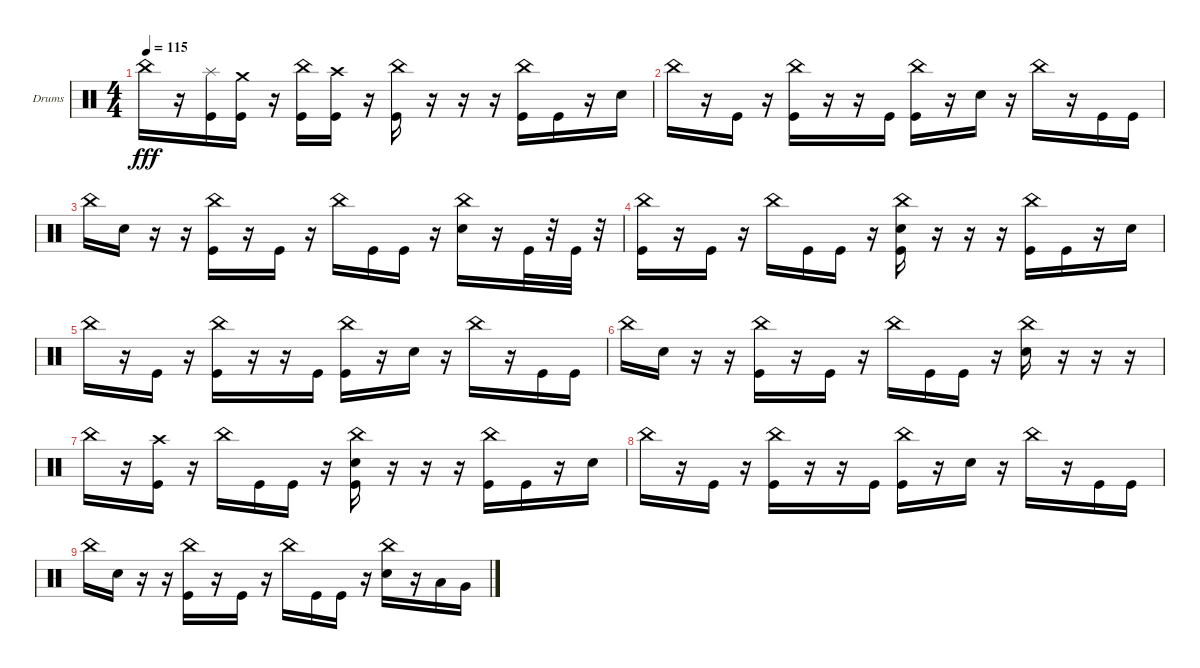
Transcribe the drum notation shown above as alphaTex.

\bracketExtendMode groupsimilarinstruments
\firstSystemTrackNameOrientation horizontal
\otherSystemsTrackNameOrientation horizontal
\track ("Drumkit" "Drums") {instrument percussion}
\staff {score}
\articulation defaults
\ts (4 4)
\tempo 115
\clef neutral
\ks c "China (hit)".16{dy fff}
r.16 ("Kick (hit)" "Splash (hit)").16 ("Kick (hit)" "Crash medium (hit)").16 r.16 ("Kick (hit)" "China (hit)").16 ("Kick (hit)" "Crash high (hit)").16 r.16 ("Kick (hit)" "China (hit)").16 r.16 r.16 r.16 ("Kick (hit)" "China (hit)").16 "Kick (hit)".16 r.16 "Snare (hit) 2".16 |
"China (hit)".16 r.16 "Kick (hit)".16 r.16 ("Kick (hit)" "China (hit)").16 r.16 r.16 "Kick (hit)".16 ("Kick (hit)" "China (hit)").16 r.16 "Snare (hit) 2".16 r.16 "China (hit)".16 r.16 "Kick (hit)".16 "Kick (hit)".16 |
"China (hit)".16 "Snare (hit) 2".16 r.16 r.16 ("Kick (hit)" "China (hit)").16 r.16 "Kick (hit)".16 r.16 "China (hit)".16 "Kick (hit)".16 "Kick (hit)".16 r.16 ("China (hit)" "Snare (hit) 2").16 r.16 "Kick (hit)".32 r.32 "Kick (hit)".32 r.32 |
("Kick (hit)" "China (hit)").16 r.16 "Kick (hit)".16 r.16 "China (hit)".16 "Kick (hit)".16 "Kick (hit)".16 r.16 ("Kick (hit)" "Snare (hit) 2" "China (hit)").16 r.16 r.16 r.16 ("Kick (hit)" "China (hit)").16 "Kick (hit)".16 r.16 "Snare (hit) 2".16 |
"China (hit)".16 r.16 "Kick (hit)".16 r.16 ("Kick (hit)" "China (hit)").16 r.16 r.16 "Kick (hit)".16 ("Kick (hit)" "China (hit)").16 r.16 "Snare (hit) 2".16 r.16 "China (hit)".16 r.16 "Kick (hit)".16 "Kick (hit)".16 |
"China (hit)".16 "Snare (hit) 2".16 r.16 r.16 ("Kick (hit)" "China (hit)").16 r.16 "Kick (hit)".16 r.16 "China (hit)".16 "Kick (hit)".16 "Kick (hit)".16 r.16 ("China (hit)" "Snare (hit) 2").16 r.16 r.16 r.16 |
"China (hit)".16 r.16 ("Kick (hit)" "Crash high (hit)").16 r.16 "China (hit)".16 "Kick (hit)".16 "Kick (hit)".16 r.16 ("Kick (hit)" "Snare (hit) 2" "China (hit)").16 r.16 r.16 r.16 ("Kick (hit)" "China (hit)").16 "Kick (hit)".16 r.16 "Snare (hit) 2".16 |
"China (hit)".16 r.16 "Kick (hit)".16 r.16 ("Kick (hit)" "China (hit)").16 r.16 r.16 "Kick (hit)".16 ("Kick (hit)" "China (hit)").16 r.16 "Snare (hit) 2".16 r.16 "China (hit)".16 r.16 "Kick (hit)".16 "Kick (hit)".16 |
"China (hit)".16 "Snare (hit) 2".16 r.16 r.16 ("Kick (hit)" "China (hit)").16 r.16 "Kick (hit)".16 r.16 "China (hit)".16 "Kick (hit)".16 "Kick (hit)".16 r.16 ("China (hit)" "Snare (hit) 2").16 r.16 "Low Tom (hit)".16 "Very Low Tom (hit)".16
